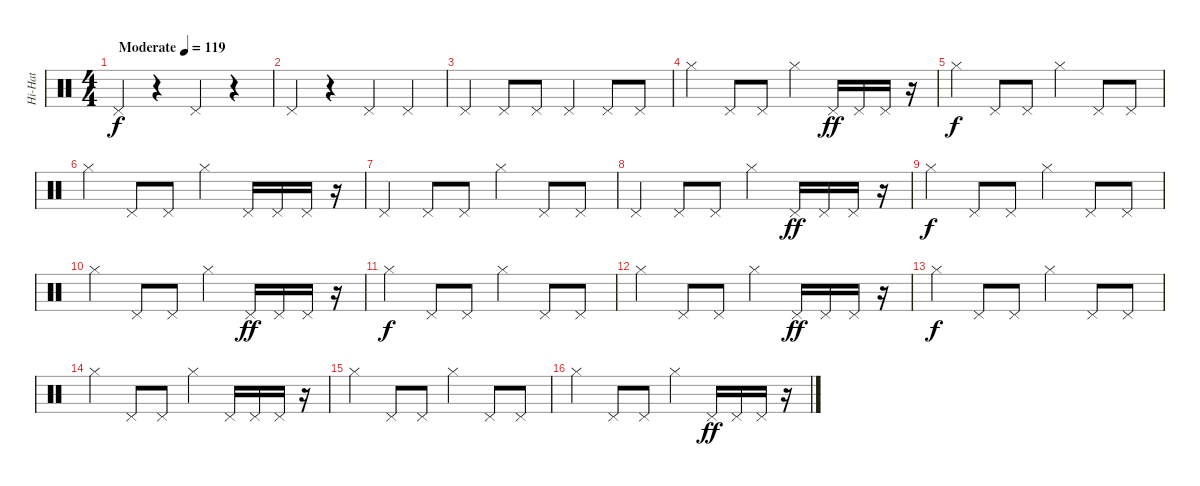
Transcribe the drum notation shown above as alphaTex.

\track ("Hi-Hat" "Hi-Hat") {instrument percussion}
\staff {score}
\articulation defaults
\ts (4 4)
\tempo (119 "Moderate")
\clef neutral
\ks c "Pedal Hi-Hat (hit)".4{dy f}
r.4 "Pedal Hi-Hat (hit)".4 r.4 |
"Pedal Hi-Hat (hit)".4 r.4 "Pedal Hi-Hat (hit)".4 "Pedal Hi-Hat (hit)".4 |
"Pedal Hi-Hat (hit)".4 "Pedal Hi-Hat (hit)".8 "Pedal Hi-Hat (hit)".8 "Pedal Hi-Hat (hit)".4 "Pedal Hi-Hat (hit)".8 "Pedal Hi-Hat (hit)".8 |
"Hi-Hat (closed)".4 "Pedal Hi-Hat (hit)".8 "Pedal Hi-Hat (hit)".8 "Hi-Hat (closed)".4 "Pedal Hi-Hat (hit)".16{dy ff} "Pedal Hi-Hat (hit)".16 "Pedal Hi-Hat (hit)".16 r.16 |
"Hi-Hat (closed)".4{dy f} "Pedal Hi-Hat (hit)".8 "Pedal Hi-Hat (hit)".8 "Hi-Hat (closed)".4 "Pedal Hi-Hat (hit)".8 "Pedal Hi-Hat (hit)".8 |
"Hi-Hat (closed)".4 "Pedal Hi-Hat (hit)".8 "Pedal Hi-Hat (hit)".8 "Hi-Hat (closed)".4 "Pedal Hi-Hat (hit)".16 "Pedal Hi-Hat (hit)".16 "Pedal Hi-Hat (hit)".16 r.16 |
"Pedal Hi-Hat (hit)".4 "Pedal Hi-Hat (hit)".8 "Pedal Hi-Hat (hit)".8 "Hi-Hat (closed)".4 "Pedal Hi-Hat (hit)".8 "Pedal Hi-Hat (hit)".8 |
"Pedal Hi-Hat (hit)".4 "Pedal Hi-Hat (hit)".8 "Pedal Hi-Hat (hit)".8 "Hi-Hat (closed)".4 "Pedal Hi-Hat (hit)".16{dy ff} "Pedal Hi-Hat (hit)".16 "Pedal Hi-Hat (hit)".16 r.16 |
"Hi-Hat (closed)".4{dy f} "Pedal Hi-Hat (hit)".8 "Pedal Hi-Hat (hit)".8 "Hi-Hat (closed)".4 "Pedal Hi-Hat (hit)".8 "Pedal Hi-Hat (hit)".8 |
"Hi-Hat (closed)".4 "Pedal Hi-Hat (hit)".8 "Pedal Hi-Hat (hit)".8 "Hi-Hat (closed)".4 "Pedal Hi-Hat (hit)".16{dy ff} "Pedal Hi-Hat (hit)".16 "Pedal Hi-Hat (hit)".16 r.16 |
"Hi-Hat (closed)".4{dy f} "Pedal Hi-Hat (hit)".8 "Pedal Hi-Hat (hit)".8 "Hi-Hat (closed)".4 "Pedal Hi-Hat (hit)".8 "Pedal Hi-Hat (hit)".8 |
"Hi-Hat (closed)".4 "Pedal Hi-Hat (hit)".8 "Pedal Hi-Hat (hit)".8 "Hi-Hat (closed)".4 "Pedal Hi-Hat (hit)".16{dy ff} "Pedal Hi-Hat (hit)".16 "Pedal Hi-Hat (hit)".16 r.16 |
"Hi-Hat (closed)".4{dy f} "Pedal Hi-Hat (hit)".8 "Pedal Hi-Hat (hit)".8 "Hi-Hat (closed)".4 "Pedal Hi-Hat (hit)".8 "Pedal Hi-Hat (hit)".8 |
"Hi-Hat (closed)".4 "Pedal Hi-Hat (hit)".8 "Pedal Hi-Hat (hit)".8 "Hi-Hat (closed)".4 "Pedal Hi-Hat (hit)".16 "Pedal Hi-Hat (hit)".16 "Pedal Hi-Hat (hit)".16 r.16 |
"Hi-Hat (closed)".4 "Pedal Hi-Hat (hit)".8 "Pedal Hi-Hat (hit)".8 "Hi-Hat (closed)".4 "Pedal Hi-Hat (hit)".8 "Pedal Hi-Hat (hit)".8 |
"Hi-Hat (closed)".4 "Pedal Hi-Hat (hit)".8 "Pedal Hi-Hat (hit)".8 "Hi-Hat (closed)".4 "Pedal Hi-Hat (hit)".16{dy ff} "Pedal Hi-Hat (hit)".16 "Pedal Hi-Hat (hit)".16 r.16
